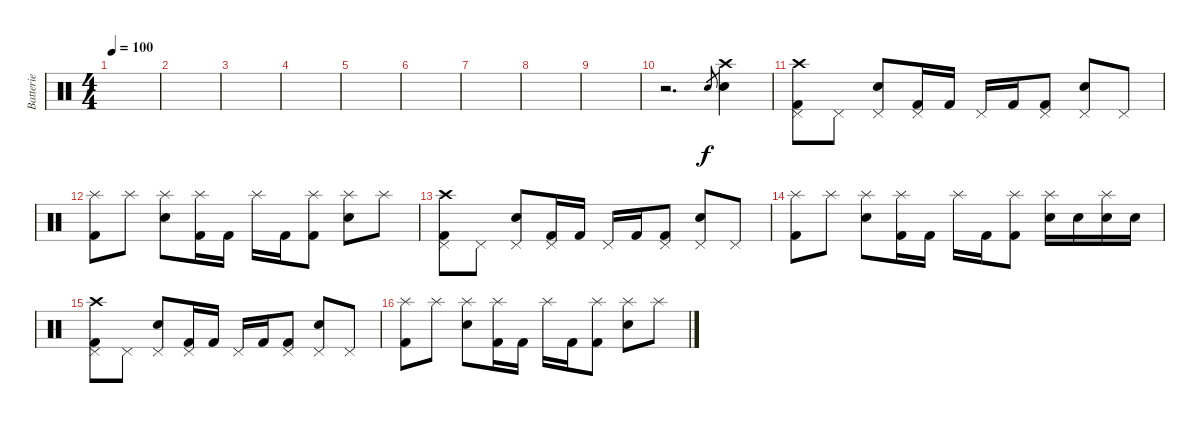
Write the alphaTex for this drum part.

\track ("Batterie" "Batterie") {instrument percussion}
\staff {score}
\articulation defaults
\ts (4 4)
\tempo 100
\clef neutral
\ks c
|
|
|
|
|
|
|
|
|
r.2{d} "Electric Snare (hit)".8{gr} ("Crash high (hit)" "Electric Snare (hit)").4 |
("Crash high (hit)" "Pedal Hi-Hat (hit)" "Kick (hit) 2").8 "Pedal Hi-Hat (hit)".8 ("Pedal Hi-Hat (hit)" "Electric Snare (hit)").8 ("Pedal Hi-Hat (hit)" "Kick (hit) 2").16 "Kick (hit) 2".16 "Pedal Hi-Hat (hit)".16 "Kick (hit) 2".16 ("Pedal Hi-Hat (hit)" "Kick (hit) 2").8 ("Pedal Hi-Hat (hit)" "Electric Snare (hit)").8 "Pedal Hi-Hat (hit)".8 |
("Splash (hit)" "Kick (hit) 2").8 "Splash (hit)".8 ("Splash (hit)" "Electric Snare (hit)").8 ("Splash (hit)" "Kick (hit) 2").16 "Kick (hit) 2".16 "Splash (hit)".16 "Kick (hit) 2".16 ("Splash (hit)" "Kick (hit) 2").8 ("Splash (hit)" "Electric Snare (hit)").8 "Splash (hit)".8 |
("Crash high (hit)" "Pedal Hi-Hat (hit)" "Kick (hit) 2").8 "Pedal Hi-Hat (hit)".8 ("Pedal Hi-Hat (hit)" "Electric Snare (hit)").8 ("Pedal Hi-Hat (hit)" "Kick (hit) 2").16 "Kick (hit) 2".16 "Pedal Hi-Hat (hit)".16 "Kick (hit) 2".16 ("Pedal Hi-Hat (hit)" "Kick (hit) 2").8 ("Pedal Hi-Hat (hit)" "Electric Snare (hit)").8 "Pedal Hi-Hat (hit)".8 |
("Splash (hit)" "Kick (hit) 2").8 "Splash (hit)".8 ("Splash (hit)" "Electric Snare (hit)").8 ("Splash (hit)" "Kick (hit) 2").16 "Kick (hit) 2".16 "Splash (hit)".16 "Kick (hit) 2".16 ("Splash (hit)" "Kick (hit) 2").8 ("Splash (hit)" "Electric Snare (hit)").16 "Electric Snare (hit)".16 ("Splash (hit)" "Electric Snare (hit)").16 "Electric Snare (hit)".16 |
("Crash high (hit)" "Pedal Hi-Hat (hit)" "Kick (hit) 2").8 "Pedal Hi-Hat (hit)".8 ("Pedal Hi-Hat (hit)" "Electric Snare (hit)").8 ("Pedal Hi-Hat (hit)" "Kick (hit) 2").16 "Kick (hit) 2".16 "Pedal Hi-Hat (hit)".16 "Kick (hit) 2".16 ("Pedal Hi-Hat (hit)" "Kick (hit) 2").8 ("Pedal Hi-Hat (hit)" "Electric Snare (hit)").8 "Pedal Hi-Hat (hit)".8 |
("Splash (hit)" "Kick (hit) 2").8 "Splash (hit)".8 ("Splash (hit)" "Electric Snare (hit)").8 ("Splash (hit)" "Kick (hit) 2").16 "Kick (hit) 2".16 "Splash (hit)".16 "Kick (hit) 2".16 ("Splash (hit)" "Kick (hit) 2").8 ("Splash (hit)" "Electric Snare (hit)").8 "Splash (hit)".8
